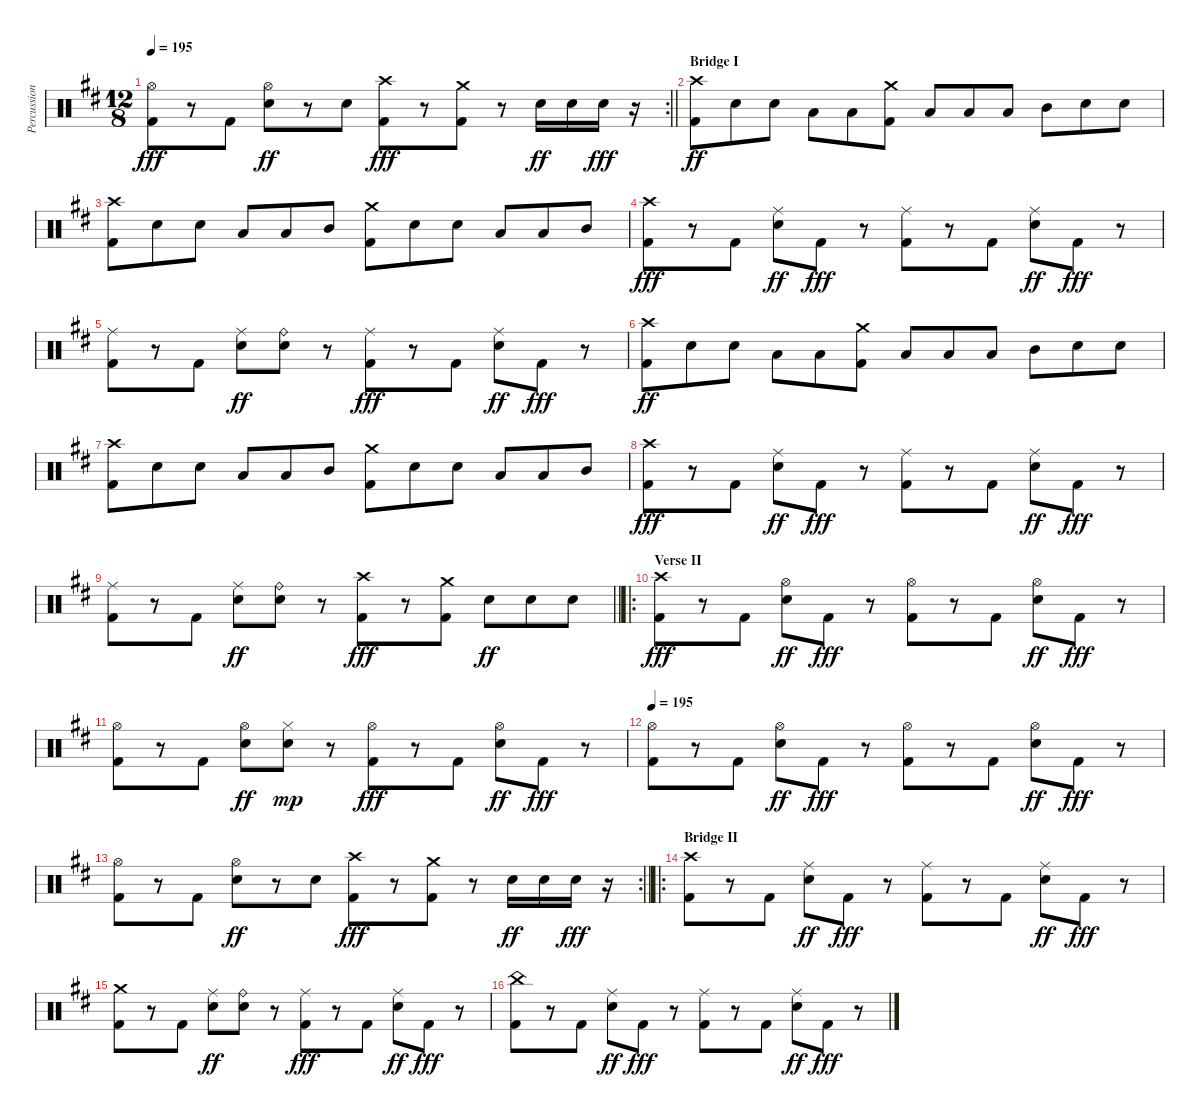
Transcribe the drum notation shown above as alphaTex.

\track ("Percussion" "Percussion") {instrument percussion}
\staff {score}
\articulation defaults
\rc 2
\ts (12 8)
\tempo 195
\clef neutral
\barLineRight lightlight
\ks d
("Hi-Hat (open)" "Kick (hit) 2").8{dy fff} r.8 "Kick (hit) 2".8 ("Hi-Hat (open)" "Snare (hit) 2").8{dy ff} r.8 "Snare (hit) 2".8 ("Crash high (hit)" "Kick (hit) 2").8{dy fff} r.8 ("Crash medium (hit)" "Kick (hit) 2").8 r.8 "Snare (hit) 2".16{dy ff} "Snare (hit) 2".16 "Snare (hit) 2".16{dy fff} r.16 |
\section ("" "Bridge I")
("Crash high (hit)" "Kick (hit) 2").8{dy ff} "Snare (hit) 2".8 "Snare (hit) 2".8 "Low Tom (hit)".8 "Low Tom (hit)".8 ("Crash medium (hit)" "Kick (hit) 2").8 "Low Tom (hit)".8 "Low Tom (hit)".8 "Low Tom (hit)".8 "Mid Tom (hit)".8 "Snare (hit) 2".8 "Snare (hit) 2".8 |
("Crash high (hit)" "Kick (hit) 2").8 "Snare (hit) 2".8 "Snare (hit) 2".8 "Low Tom (hit)".8 "Low Tom (hit)".8 "Mid Tom (hit)".8 ("Crash medium (hit)" "Kick (hit) 2").8 "Snare (hit) 2".8 "Snare (hit) 2".8 "Low Tom (hit)".8 "Low Tom (hit)".8 "Mid Tom (hit)".8 |
("Crash high (hit)" "Kick (hit) 2").8{dy fff} r.8 "Kick (hit) 2".8 ("Ride (middle)" "Snare (hit) 2").8{dy ff} "Kick (hit) 2".8{dy fff} r.8 ("Ride (middle)" "Kick (hit) 2").8 r.8 "Kick (hit) 2".8 ("Ride (middle)" "Snare (hit) 2").8{dy ff} "Kick (hit) 2".8{dy fff} r.8 |
("Ride (middle)" "Kick (hit) 2").8 r.8 "Kick (hit) 2".8 ("Ride (middle)" "Snare (hit) 2").8{dy ff} ("Ride (bell)" "Snare (hit) 2").8 r.8 ("Ride (middle)" "Kick (hit) 2").8{dy fff} r.8 "Kick (hit) 2".8 ("Ride (middle)" "Snare (hit) 2").8{dy ff} "Kick (hit) 2".8{dy fff} r.8 |
("Crash high (hit)" "Kick (hit) 2").8{dy ff} "Snare (hit) 2".8 "Snare (hit) 2".8 "Low Tom (hit)".8 "Low Tom (hit)".8 ("Crash medium (hit)" "Kick (hit) 2").8 "Low Tom (hit)".8 "Low Tom (hit)".8 "Low Tom (hit)".8 "Mid Tom (hit)".8 "Snare (hit) 2".8 "Snare (hit) 2".8 |
("Crash high (hit)" "Kick (hit) 2").8 "Snare (hit) 2".8 "Snare (hit) 2".8 "Low Tom (hit)".8 "Low Tom (hit)".8 "Mid Tom (hit)".8 ("Crash medium (hit)" "Kick (hit) 2").8 "Snare (hit) 2".8 "Snare (hit) 2".8 "Low Tom (hit)".8 "Low Tom (hit)".8 "Mid Tom (hit)".8 |
("Crash high (hit)" "Kick (hit) 2").8{dy fff} r.8 "Kick (hit) 2".8 ("Ride (middle)" "Snare (hit) 2").8{dy ff} "Kick (hit) 2".8{dy fff} r.8 ("Ride (middle)" "Kick (hit) 2").8 r.8 "Kick (hit) 2".8 ("Ride (middle)" "Snare (hit) 2").8{dy ff} "Kick (hit) 2".8{dy fff} r.8 |
\barLineRight lightlight
("Ride (middle)" "Kick (hit) 2").8 r.8 "Kick (hit) 2".8 ("Ride (middle)" "Snare (hit) 2").8{dy ff} ("Ride (bell)" "Snare (hit) 2").8 r.8 ("Crash high (hit)" "Kick (hit) 2").8{dy fff} r.8 ("Crash medium (hit)" "Kick (hit) 2").8 "Snare (hit) 2".8{dy ff} "Snare (hit) 2".8 "Snare (hit) 2".8 |
\ro
\section ("" "Verse II")
("Crash high (hit)" "Kick (hit) 2").8{dy fff} r.8 "Kick (hit) 2".8 ("Hi-Hat (open)" "Snare (hit) 2").8{dy ff} "Kick (hit) 2".8{dy fff} r.8 ("Hi-Hat (open)" "Kick (hit) 2").8 r.8 "Kick (hit) 2".8 ("Hi-Hat (open)" "Snare (hit) 2").8{dy ff} "Kick (hit) 2".8{dy fff} r.8 |
("Hi-Hat (open)" "Kick (hit) 2").8 r.8 "Kick (hit) 2".8 ("Hi-Hat (open)" "Snare (hit) 2").8{dy ff} ("Hi-Hat (closed)" "Snare (hit) 2").8{dy mp} r.8 ("Hi-Hat (open)" "Kick (hit) 2").8{dy fff} r.8 "Kick (hit) 2".8 ("Hi-Hat (open)" "Snare (hit) 2").8{dy ff} "Kick (hit) 2".8{dy fff} r.8 |
\tempo 195
("Hi-Hat (open)" "Kick (hit) 2").8 r.8 "Kick (hit) 2".8 ("Hi-Hat (open)" "Snare (hit) 2").8{dy ff} "Kick (hit) 2".8{dy fff} r.8 ("Hi-Hat (open)" "Kick (hit) 2").8 r.8 "Kick (hit) 2".8 ("Hi-Hat (open)" "Snare (hit) 2").8{dy ff} "Kick (hit) 2".8{dy fff} r.8 |
\rc 2
\barLineRight lightlight
("Hi-Hat (open)" "Kick (hit) 2").8 r.8 "Kick (hit) 2".8 ("Hi-Hat (open)" "Snare (hit) 2").8{dy ff} r.8 "Snare (hit) 2".8 ("Crash high (hit)" "Kick (hit) 2").8{dy fff} r.8 ("Crash medium (hit)" "Kick (hit) 2").8 r.8 "Snare (hit) 2".16{dy ff} "Snare (hit) 2".16 "Snare (hit) 2".16{dy fff} r.16 |
\ro
\section ("" "Bridge II")
("Crash high (hit)" "Kick (hit) 2").8 r.8 "Kick (hit) 2".8 ("Ride (middle)" "Snare (hit) 2").8{dy ff} "Kick (hit) 2".8{dy fff} r.8 ("Ride (middle)" "Kick (hit) 2").8 r.8 "Kick (hit) 2".8 ("Ride (middle)" "Snare (hit) 2").8{dy ff} "Kick (hit) 2".8{dy fff} r.8 |
("Crash medium (hit)" "Kick (hit) 2").8 r.8 "Kick (hit) 2".8 ("Ride (middle)" "Snare (hit) 2").8{dy ff} ("Ride (bell)" "Snare (hit) 2").8 r.8 ("Ride (middle)" "Kick (hit) 2").8{dy fff} r.8 "Kick (hit) 2".8 ("Ride (middle)" "Snare (hit) 2").8{dy ff} "Kick (hit) 2".8{dy fff} r.8 |
("China (hit)" "Kick (hit) 2").8 r.8 "Kick (hit) 2".8 ("Ride (middle)" "Snare (hit) 2").8{dy ff} "Kick (hit) 2".8{dy fff} r.8 ("Ride (middle)" "Kick (hit) 2").8 r.8 "Kick (hit) 2".8 ("Ride (middle)" "Snare (hit) 2").8{dy ff} "Kick (hit) 2".8{dy fff} r.8
